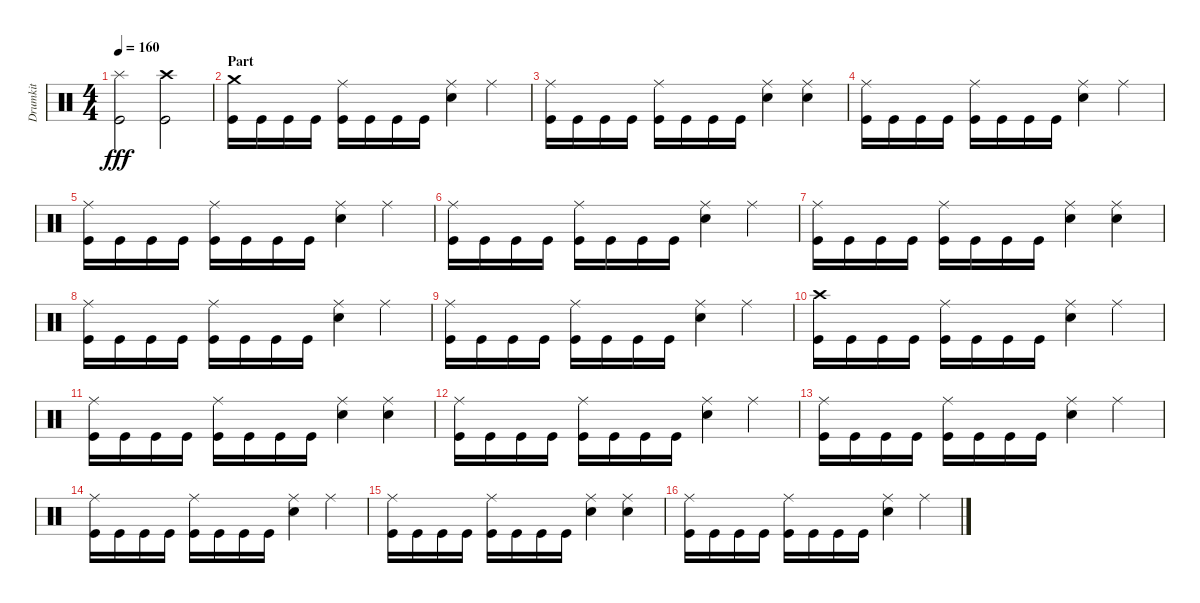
\track ("Drumkit" "Drumkit") {instrument percussion}
\staff {score}
\articulation defaults
\ts (4 4)
\tempo 160
\clef neutral
\ks c
("Kick (hit)" "Splash (hit)").2{dy fff} ("Kick (hit)" "Crash high (hit)").2 |
\section ("" "Part")
("Kick (hit)" "Crash medium (hit)").16 "Kick (hit)".16 "Kick (hit)".16 "Kick (hit)".16 ("Kick (hit)" "Ride (middle)").16 "Kick (hit)".16 "Kick (hit)".16 "Kick (hit)".16 ("Ride (middle)" "Snare (hit) 2").4 "Ride (middle)".4 |
("Kick (hit)" "Ride (middle)").16 "Kick (hit)".16 "Kick (hit)".16 "Kick (hit)".16 ("Kick (hit)" "Ride (middle)").16 "Kick (hit)".16 "Kick (hit)".16 "Kick (hit)".16 ("Ride (middle)" "Snare (hit) 2").4 ("Ride (middle)" "Snare (hit) 2").4 |
("Kick (hit)" "Ride (middle)").16 "Kick (hit)".16 "Kick (hit)".16 "Kick (hit)".16 ("Kick (hit)" "Ride (middle)").16 "Kick (hit)".16 "Kick (hit)".16 "Kick (hit)".16 ("Ride (middle)" "Snare (hit) 2").4 "Ride (middle)".4 |
("Kick (hit)" "Ride (middle)").16 "Kick (hit)".16 "Kick (hit)".16 "Kick (hit)".16 ("Kick (hit)" "Ride (middle)").16 "Kick (hit)".16 "Kick (hit)".16 "Kick (hit)".16 ("Ride (middle)" "Snare (hit) 2").4 "Ride (middle)".4 |
("Kick (hit)" "Ride (middle)").16 "Kick (hit)".16 "Kick (hit)".16 "Kick (hit)".16 ("Kick (hit)" "Ride (middle)").16 "Kick (hit)".16 "Kick (hit)".16 "Kick (hit)".16 ("Ride (middle)" "Snare (hit) 2").4 "Ride (middle)".4 |
("Kick (hit)" "Ride (middle)").16 "Kick (hit)".16 "Kick (hit)".16 "Kick (hit)".16 ("Kick (hit)" "Ride (middle)").16 "Kick (hit)".16 "Kick (hit)".16 "Kick (hit)".16 ("Ride (middle)" "Snare (hit) 2").4 ("Ride (middle)" "Snare (hit) 2").4 |
("Kick (hit)" "Ride (middle)").16 "Kick (hit)".16 "Kick (hit)".16 "Kick (hit)".16 ("Kick (hit)" "Ride (middle)").16 "Kick (hit)".16 "Kick (hit)".16 "Kick (hit)".16 ("Ride (middle)" "Snare (hit) 2").4 "Ride (middle)".4 |
("Kick (hit)" "Ride (middle)").16 "Kick (hit)".16 "Kick (hit)".16 "Kick (hit)".16 ("Kick (hit)" "Ride (middle)").16 "Kick (hit)".16 "Kick (hit)".16 "Kick (hit)".16 ("Ride (middle)" "Snare (hit) 2").4 "Ride (middle)".4 |
("Kick (hit)" "Crash high (hit)").16 "Kick (hit)".16 "Kick (hit)".16 "Kick (hit)".16 ("Kick (hit)" "Ride (middle)").16 "Kick (hit)".16 "Kick (hit)".16 "Kick (hit)".16 ("Ride (middle)" "Snare (hit) 2").4 "Ride (middle)".4 |
("Kick (hit)" "Ride (middle)").16 "Kick (hit)".16 "Kick (hit)".16 "Kick (hit)".16 ("Kick (hit)" "Ride (middle)").16 "Kick (hit)".16 "Kick (hit)".16 "Kick (hit)".16 ("Ride (middle)" "Snare (hit) 2").4 ("Ride (middle)" "Snare (hit) 2").4 |
("Kick (hit)" "Ride (middle)").16 "Kick (hit)".16 "Kick (hit)".16 "Kick (hit)".16 ("Kick (hit)" "Ride (middle)").16 "Kick (hit)".16 "Kick (hit)".16 "Kick (hit)".16 ("Ride (middle)" "Snare (hit) 2").4 "Ride (middle)".4 |
("Kick (hit)" "Ride (middle)").16 "Kick (hit)".16 "Kick (hit)".16 "Kick (hit)".16 ("Kick (hit)" "Ride (middle)").16 "Kick (hit)".16 "Kick (hit)".16 "Kick (hit)".16 ("Ride (middle)" "Snare (hit) 2").4 "Ride (middle)".4 |
("Kick (hit)" "Ride (middle)").16 "Kick (hit)".16 "Kick (hit)".16 "Kick (hit)".16 ("Kick (hit)" "Ride (middle)").16 "Kick (hit)".16 "Kick (hit)".16 "Kick (hit)".16 ("Ride (middle)" "Snare (hit) 2").4 "Ride (middle)".4 |
("Kick (hit)" "Ride (middle)").16 "Kick (hit)".16 "Kick (hit)".16 "Kick (hit)".16 ("Kick (hit)" "Ride (middle)").16 "Kick (hit)".16 "Kick (hit)".16 "Kick (hit)".16 ("Ride (middle)" "Snare (hit) 2").4 ("Ride (middle)" "Snare (hit) 2").4 |
("Kick (hit)" "Ride (middle)").16 "Kick (hit)".16 "Kick (hit)".16 "Kick (hit)".16 ("Kick (hit)" "Ride (middle)").16 "Kick (hit)".16 "Kick (hit)".16 "Kick (hit)".16 ("Ride (middle)" "Snare (hit) 2").4 "Ride (middle)".4
